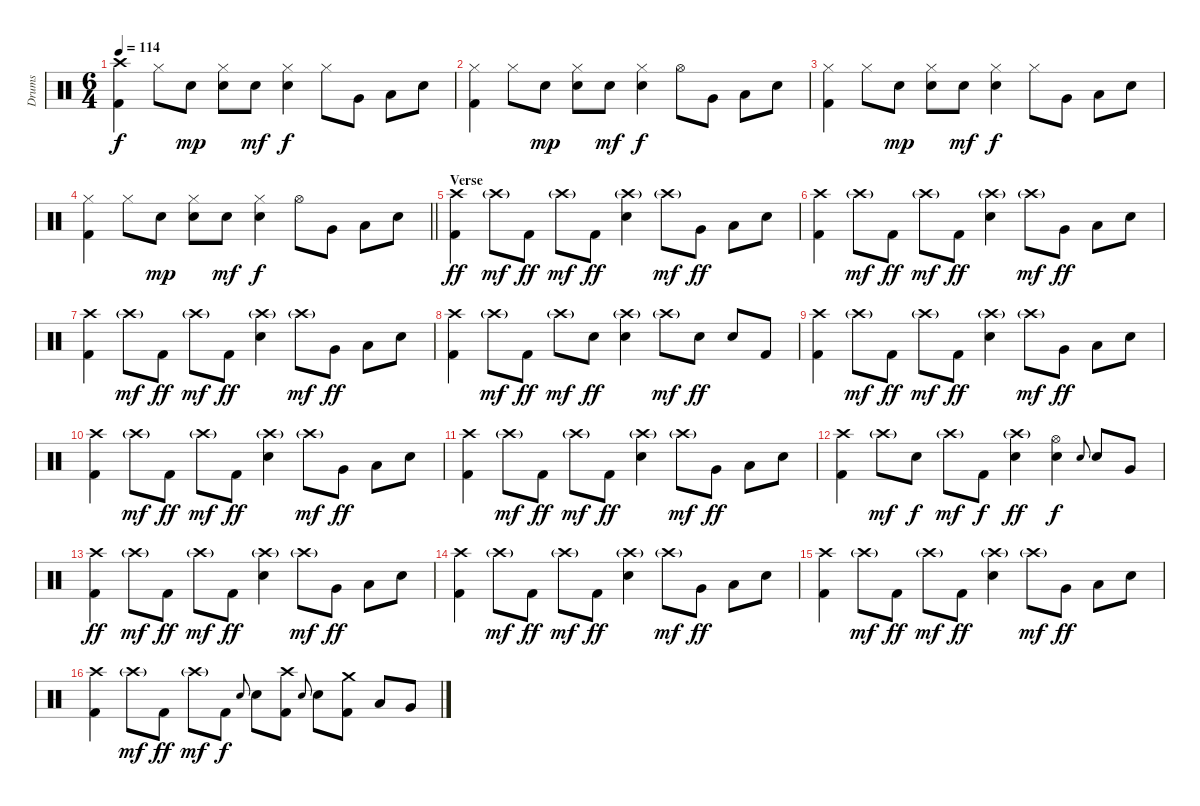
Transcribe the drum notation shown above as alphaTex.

\track ("Drums" "Drums") {instrument percussion}
\staff {score}
\articulation defaults
\ts (6 4)
\tempo 114
\clef neutral
\ks c
("Crash high (hit)" "Kick (hit) 2").4{dy f} "Hi-Hat (closed)".8 "Electric Snare (hit)".8{dy mp} ("Hi-Hat (closed)" "Electric Snare (hit)").8 "Electric Snare (hit)".8{dy mf} ("Hi-Hat (closed)" "Electric Snare (hit)").4{dy f} "Hi-Hat (closed)".8 "Very Low Tom (hit)".8 "Low Tom (hit)".8 "Electric Snare (hit)".8 |
("Hi-Hat (closed)" "Kick (hit) 2").4 "Hi-Hat (closed)".8 "Electric Snare (hit)".8{dy mp} ("Hi-Hat (closed)" "Electric Snare (hit)").8 "Electric Snare (hit)".8{dy mf} ("Hi-Hat (closed)" "Electric Snare (hit)").4{dy f} "Hi-Hat (open)".8 "Very Low Tom (hit)".8 "Low Tom (hit)".8 "Electric Snare (hit)".8 |
("Hi-Hat (closed)" "Kick (hit) 2").4 "Hi-Hat (closed)".8 "Electric Snare (hit)".8{dy mp} ("Hi-Hat (closed)" "Electric Snare (hit)").8 "Electric Snare (hit)".8{dy mf} ("Hi-Hat (closed)" "Electric Snare (hit)").4{dy f} "Hi-Hat (closed)".8 "Very Low Tom (hit)".8 "Low Tom (hit)".8 "Electric Snare (hit)".8 |
\barLineRight lightlight
("Hi-Hat (closed)" "Kick (hit) 2").4 "Hi-Hat (closed)".8 "Electric Snare (hit)".8{dy mp} ("Hi-Hat (closed)" "Electric Snare (hit)").8 "Electric Snare (hit)".8{dy mf} ("Hi-Hat (closed)" "Electric Snare (hit)").4{dy f} "Hi-Hat (open)".8 "Very Low Tom (hit)".8 "Low Tom (hit)".8 "Electric Snare (hit)".8 |
\section ("" "Verse")
("Crash high (hit)" "Kick (hit) 2").4{dy ff} "Crash high (hit)"{g}.8{dy mf} "Kick (hit) 2".8{dy ff} "Crash high (hit)"{g}.8{dy mf} "Kick (hit) 2".8{dy ff} ("Crash high (hit)"{g} "Electric Snare (hit)").4 "Crash high (hit)"{g}.8{dy mf} "Very Low Tom (hit)".8{dy ff} "Low Tom (hit)".8 "Electric Snare (hit)".8 |
("Crash high (hit)" "Kick (hit) 2").4 "Crash high (hit)"{g}.8{dy mf} "Kick (hit) 2".8{dy ff} "Crash high (hit)"{g}.8{dy mf} "Kick (hit) 2".8{dy ff} ("Crash high (hit)"{g} "Electric Snare (hit)").4 "Crash high (hit)"{g}.8{dy mf} "Very Low Tom (hit)".8{dy ff} "Low Tom (hit)".8 "Electric Snare (hit)".8 |
("Crash high (hit)" "Kick (hit) 2").4 "Crash high (hit)"{g}.8{dy mf} "Kick (hit) 2".8{dy ff} "Crash high (hit)"{g}.8{dy mf} "Kick (hit) 2".8{dy ff} ("Crash high (hit)"{g} "Electric Snare (hit)").4 "Crash high (hit)"{g}.8{dy mf} "Very Low Tom (hit)".8{dy ff} "Low Tom (hit)".8 "Electric Snare (hit)".8 |
("Crash high (hit)" "Kick (hit) 2").4 "Crash high (hit)"{g}.8{dy mf} "Kick (hit) 2".8{dy ff} "Crash high (hit)"{g}.8{dy mf} "Electric Snare (hit)".8{dy ff} ("Crash high (hit)"{g} "Electric Snare (hit)").4 "Crash high (hit)"{g}.8{dy mf} "Electric Snare (hit)".8{dy ff} "Electric Snare (hit)".8 "Kick (hit) 2".8 |
("Crash high (hit)" "Kick (hit) 2").4 "Crash high (hit)"{g}.8{dy mf} "Kick (hit) 2".8{dy ff} "Crash high (hit)"{g}.8{dy mf} "Kick (hit) 2".8{dy ff} ("Crash high (hit)"{g} "Electric Snare (hit)").4 "Crash high (hit)"{g}.8{dy mf} "Very Low Tom (hit)".8{dy ff} "Low Tom (hit)".8 "Electric Snare (hit)".8 |
("Crash high (hit)" "Kick (hit) 2").4 "Crash high (hit)"{g}.8{dy mf} "Kick (hit) 2".8{dy ff} "Crash high (hit)"{g}.8{dy mf} "Kick (hit) 2".8{dy ff} ("Crash high (hit)"{g} "Electric Snare (hit)").4 "Crash high (hit)"{g}.8{dy mf} "Very Low Tom (hit)".8{dy ff} "Low Tom (hit)".8 "Electric Snare (hit)".8 |
("Crash high (hit)" "Kick (hit) 2").4 "Crash high (hit)"{g}.8{dy mf} "Kick (hit) 2".8{dy ff} "Crash high (hit)"{g}.8{dy mf} "Kick (hit) 2".8{dy ff} ("Crash high (hit)"{g} "Electric Snare (hit)").4 "Crash high (hit)"{g}.8{dy mf} "Very Low Tom (hit)".8{dy ff} "Low Tom (hit)".8 "Electric Snare (hit)".8 |
("Crash high (hit)" "Kick (hit) 2").4 "Crash high (hit)"{g}.8{dy mf} "Electric Snare (hit)".8{dy f} "Crash high (hit)"{g}.8{dy mf} "Kick (hit) 2".8{dy f} ("Crash high (hit)"{g} "Electric Snare (hit)").4{dy ff} ("Hi-Hat (open)" "Electric Snare (hit)").4{dy f} "Electric Snare (hit)".8{gr onbeat} "Electric Snare (hit)".8 "Very Low Tom (hit)".8 |
("Crash high (hit)" "Kick (hit) 2").4{dy ff} "Crash high (hit)"{g}.8{dy mf} "Kick (hit) 2".8{dy ff} "Crash high (hit)"{g}.8{dy mf} "Kick (hit) 2".8{dy ff} ("Crash high (hit)"{g} "Electric Snare (hit)").4 "Crash high (hit)"{g}.8{dy mf} "Very Low Tom (hit)".8{dy ff} "Low Tom (hit)".8 "Electric Snare (hit)".8 |
("Crash high (hit)" "Kick (hit) 2").4 "Crash high (hit)"{g}.8{dy mf} "Kick (hit) 2".8{dy ff} "Crash high (hit)"{g}.8{dy mf} "Kick (hit) 2".8{dy ff} ("Crash high (hit)"{g} "Electric Snare (hit)").4 "Crash high (hit)"{g}.8{dy mf} "Very Low Tom (hit)".8{dy ff} "Low Tom (hit)".8 "Electric Snare (hit)".8 |
("Crash high (hit)" "Kick (hit) 2").4 "Crash high (hit)"{g}.8{dy mf} "Kick (hit) 2".8{dy ff} "Crash high (hit)"{g}.8{dy mf} "Kick (hit) 2".8{dy ff} ("Crash high (hit)"{g} "Electric Snare (hit)").4 "Crash high (hit)"{g}.8{dy mf} "Very Low Tom (hit)".8{dy ff} "Low Tom (hit)".8 "Electric Snare (hit)".8 |
("Crash high (hit)" "Kick (hit) 2").4 "Crash high (hit)"{g}.8{dy mf} "Kick (hit) 2".8{dy ff} "Crash high (hit)"{g}.8{dy mf} "Kick (hit) 2".8{dy f} "Electric Snare (hit)".8{gr onbeat} "Electric Snare (hit)".8 ("Crash high (hit)" "Kick (hit) 2").8 "Electric Snare (hit)".8{gr onbeat} "Electric Snare (hit)".8 ("Crash medium (hit)" "Kick (hit) 2").8 "Low Tom (hit)".8 "Very Low Tom (hit)".8
